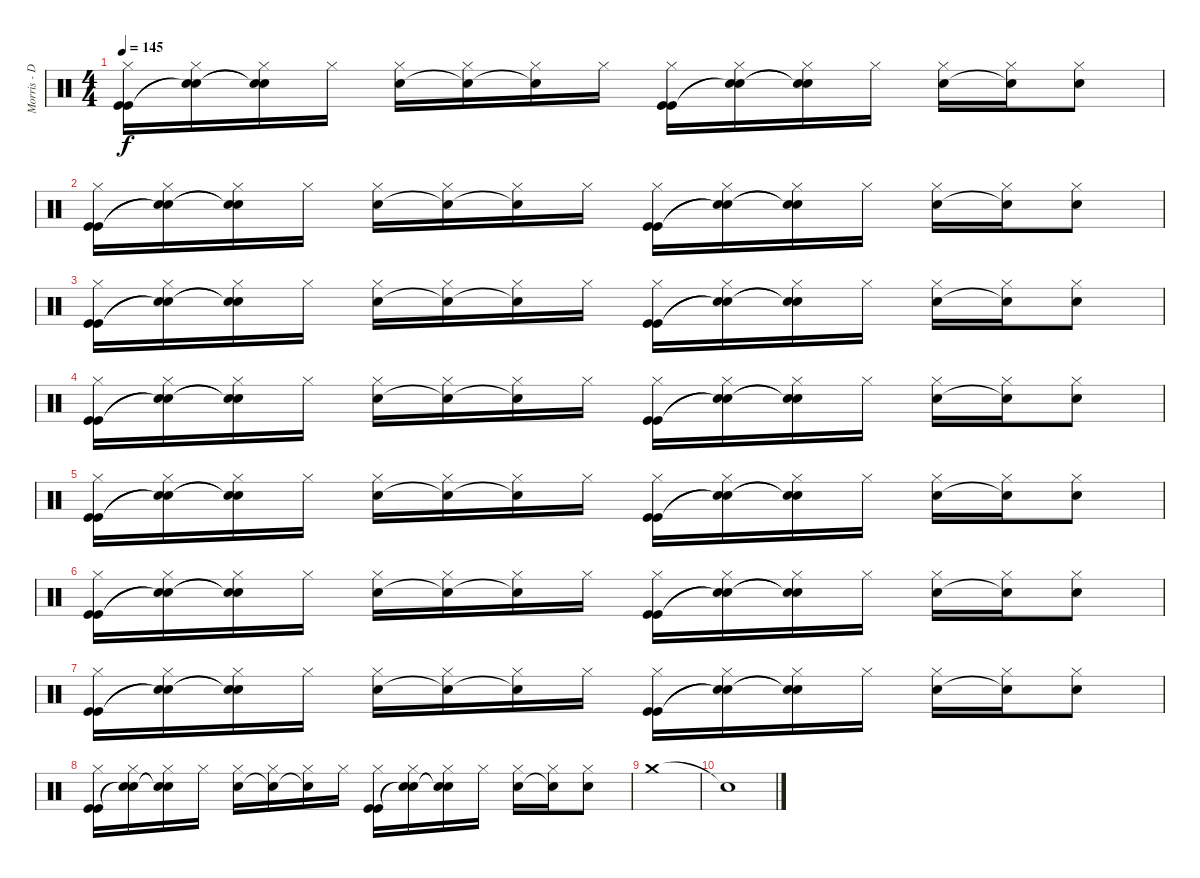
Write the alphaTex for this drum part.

\track ("Morris - Drums" "Morris - D") {instrument percussion}
\staff {score}
\articulation defaults
\ts (4 4)
\tempo 145
\clef neutral
\ks c
("Hi-Hat (closed)" "Kick (hit)" "Kick (hit)").16{dy f} ("Hi-Hat (closed)" "Snare (hit)"{t} "Snare (hit)"{t}).16 ("Hi-Hat (closed)" "Snare (hit)"{t} "Snare (hit)"{t}).16 "Hi-Hat (closed)".16 ("Hi-Hat (closed)" "Snare (hit) 2").16 ("Hi-Hat (closed)" "Snare (hit)"{t}).16 ("Hi-Hat (closed)" "Snare (hit)"{t}).16 "Hi-Hat (closed)".16 ("Hi-Hat (closed)" "Kick (hit)" "Kick (hit)").16 ("Hi-Hat (closed)" "Snare (hit)"{t} "Snare (hit)"{t}).16 ("Hi-Hat (closed)" "Snare (hit)"{t} "Snare (hit)"{t}).16 "Hi-Hat (closed)".16 ("Hi-Hat (closed)" "Snare (hit) 2").16 ("Hi-Hat (closed)" "Snare (hit) 2"{t}).16 ("Hi-Hat (closed)" "Snare (hit) 2").8 |
("Hi-Hat (closed)" "Kick (hit)" "Kick (hit)").16 ("Hi-Hat (closed)" "Snare (hit)"{t} "Snare (hit)"{t}).16 ("Hi-Hat (closed)" "Snare (hit)"{t} "Snare (hit)"{t}).16 "Hi-Hat (closed)".16 ("Hi-Hat (closed)" "Snare (hit) 2").16 ("Hi-Hat (closed)" "Snare (hit)"{t}).16 ("Hi-Hat (closed)" "Snare (hit)"{t}).16 "Hi-Hat (closed)".16 ("Hi-Hat (closed)" "Kick (hit)" "Kick (hit)").16 ("Hi-Hat (closed)" "Snare (hit)"{t} "Snare (hit)"{t}).16 ("Hi-Hat (closed)" "Snare (hit)"{t} "Snare (hit)"{t}).16 "Hi-Hat (closed)".16 ("Hi-Hat (closed)" "Snare (hit) 2").16 ("Hi-Hat (closed)" "Snare (hit) 2"{t}).16 ("Hi-Hat (closed)" "Snare (hit) 2").8 |
("Hi-Hat (closed)" "Kick (hit)" "Kick (hit)").16 ("Hi-Hat (closed)" "Snare (hit)"{t} "Snare (hit)"{t}).16 ("Hi-Hat (closed)" "Snare (hit)"{t} "Snare (hit)"{t}).16 "Hi-Hat (closed)".16 ("Hi-Hat (closed)" "Snare (hit) 2").16 ("Hi-Hat (closed)" "Snare (hit)"{t}).16 ("Hi-Hat (closed)" "Snare (hit)"{t}).16 "Hi-Hat (closed)".16 ("Hi-Hat (closed)" "Kick (hit)" "Kick (hit)").16 ("Hi-Hat (closed)" "Snare (hit)"{t} "Snare (hit)"{t}).16 ("Hi-Hat (closed)" "Snare (hit)"{t} "Snare (hit)"{t}).16 "Hi-Hat (closed)".16 ("Hi-Hat (closed)" "Snare (hit) 2").16 ("Hi-Hat (closed)" "Snare (hit) 2"{t}).16 ("Hi-Hat (closed)" "Snare (hit) 2").8 |
("Hi-Hat (closed)" "Kick (hit)" "Kick (hit)").16 ("Hi-Hat (closed)" "Snare (hit)"{t} "Snare (hit)"{t}).16 ("Hi-Hat (closed)" "Snare (hit)"{t} "Snare (hit)"{t}).16 "Hi-Hat (closed)".16 ("Hi-Hat (closed)" "Snare (hit) 2").16 ("Hi-Hat (closed)" "Snare (hit)"{t}).16 ("Hi-Hat (closed)" "Snare (hit)"{t}).16 "Hi-Hat (closed)".16 ("Hi-Hat (closed)" "Kick (hit)" "Kick (hit)").16 ("Hi-Hat (closed)" "Snare (hit)"{t} "Snare (hit)"{t}).16 ("Hi-Hat (closed)" "Snare (hit)"{t} "Snare (hit)"{t}).16 "Hi-Hat (closed)".16 ("Hi-Hat (closed)" "Snare (hit) 2").16 ("Hi-Hat (closed)" "Snare (hit) 2"{t}).16 ("Hi-Hat (closed)" "Snare (hit) 2").8 |
("Hi-Hat (closed)" "Kick (hit)" "Kick (hit)").16 ("Hi-Hat (closed)" "Snare (hit)"{t} "Snare (hit)"{t}).16 ("Hi-Hat (closed)" "Snare (hit)"{t} "Snare (hit)"{t}).16 "Hi-Hat (closed)".16 ("Hi-Hat (closed)" "Snare (hit) 2").16 ("Hi-Hat (closed)" "Snare (hit)"{t}).16 ("Hi-Hat (closed)" "Snare (hit)"{t}).16 "Hi-Hat (closed)".16 ("Hi-Hat (closed)" "Kick (hit)" "Kick (hit)").16 ("Hi-Hat (closed)" "Snare (hit)"{t} "Snare (hit)"{t}).16 ("Hi-Hat (closed)" "Snare (hit)"{t} "Snare (hit)"{t}).16 "Hi-Hat (closed)".16 ("Hi-Hat (closed)" "Snare (hit) 2").16 ("Hi-Hat (closed)" "Snare (hit) 2"{t}).16 ("Hi-Hat (closed)" "Snare (hit) 2").8 |
("Hi-Hat (closed)" "Kick (hit)" "Kick (hit)").16 ("Hi-Hat (closed)" "Snare (hit)"{t} "Snare (hit)"{t}).16 ("Hi-Hat (closed)" "Snare (hit)"{t} "Snare (hit)"{t}).16 "Hi-Hat (closed)".16 ("Hi-Hat (closed)" "Snare (hit) 2").16 ("Hi-Hat (closed)" "Snare (hit)"{t}).16 ("Hi-Hat (closed)" "Snare (hit)"{t}).16 "Hi-Hat (closed)".16 ("Hi-Hat (closed)" "Kick (hit)" "Kick (hit)").16 ("Hi-Hat (closed)" "Snare (hit)"{t} "Snare (hit)"{t}).16 ("Hi-Hat (closed)" "Snare (hit)"{t} "Snare (hit)"{t}).16 "Hi-Hat (closed)".16 ("Hi-Hat (closed)" "Snare (hit) 2").16 ("Hi-Hat (closed)" "Snare (hit) 2"{t}).16 ("Hi-Hat (closed)" "Snare (hit) 2").8 |
("Hi-Hat (closed)" "Kick (hit)" "Kick (hit)").16 ("Hi-Hat (closed)" "Snare (hit)"{t} "Snare (hit)"{t}).16 ("Hi-Hat (closed)" "Snare (hit)"{t} "Snare (hit)"{t}).16 "Hi-Hat (closed)".16 ("Hi-Hat (closed)" "Snare (hit) 2").16 ("Hi-Hat (closed)" "Snare (hit)"{t}).16 ("Hi-Hat (closed)" "Snare (hit)"{t}).16 "Hi-Hat (closed)".16 ("Hi-Hat (closed)" "Kick (hit)" "Kick (hit)").16 ("Hi-Hat (closed)" "Snare (hit)"{t} "Snare (hit)"{t}).16 ("Hi-Hat (closed)" "Snare (hit)"{t} "Snare (hit)"{t}).16 "Hi-Hat (closed)".16 ("Hi-Hat (closed)" "Snare (hit) 2").16 ("Hi-Hat (closed)" "Snare (hit) 2"{t}).16 ("Hi-Hat (closed)" "Snare (hit) 2").8 |
("Hi-Hat (closed)" "Kick (hit)" "Kick (hit)").16 ("Hi-Hat (closed)" "Snare (hit)"{t} "Snare (hit)"{t}).16 ("Hi-Hat (closed)" "Snare (hit)"{t} "Snare (hit)"{t}).16 "Hi-Hat (closed)".16 ("Hi-Hat (closed)" "Snare (hit) 2").16 ("Hi-Hat (closed)" "Snare (hit)"{t}).16 ("Hi-Hat (closed)" "Snare (hit)"{t}).16 "Hi-Hat (closed)".16 ("Hi-Hat (closed)" "Kick (hit)" "Kick (hit)").16 ("Hi-Hat (closed)" "Snare (hit)"{t} "Snare (hit)"{t}).16 ("Hi-Hat (closed)" "Snare (hit)"{t} "Snare (hit)"{t}).16 "Hi-Hat (closed)".16 ("Hi-Hat (closed)" "Snare (hit) 2").16 ("Hi-Hat (closed)" "Snare (hit) 2"{t}).16 ("Hi-Hat (closed)" "Snare (hit) 2").8 |
"Crash medium (hit)".1 |
"Snare (hit)"{t}.1
